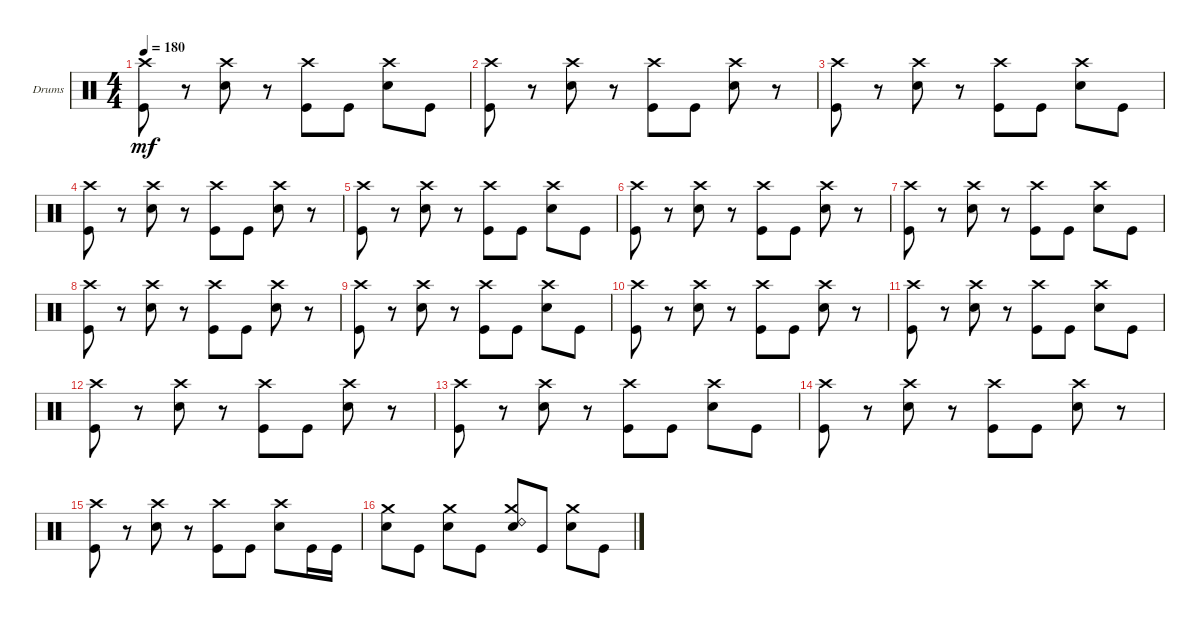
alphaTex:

\defaultSystemsLayout 4
\bracketExtendMode groupsimilarinstruments
\firstSystemTrackNameOrientation horizontal
\otherSystemsTrackNameOrientation horizontal
\track ("Drums" "Drums") {instrument percussion}
\staff {score}
\articulation defaults
\ts (4 4)
\tempo 180
\clef neutral
\ks c
("Kick (hit)" "Crash high (hit)").8{dy mf} r.8 ("Snare (hit) 2" "Crash high (hit)").8 r.8 ("Kick (hit)" "Crash high (hit)").8 "Kick (hit)".8 ("Snare (hit) 2" "Crash high (hit)").8 "Kick (hit)".8 |
("Kick (hit)" "Crash high (hit)").8 r.8 ("Snare (hit) 2" "Crash high (hit)").8 r.8 ("Kick (hit)" "Crash high (hit)").8 "Kick (hit)".8 ("Snare (hit) 2" "Crash high (hit)").8 r.8 |
("Kick (hit)" "Crash high (hit)").8 r.8 ("Snare (hit) 2" "Crash high (hit)").8 r.8 ("Kick (hit)" "Crash high (hit)").8 "Kick (hit)".8 ("Snare (hit) 2" "Crash high (hit)").8 "Kick (hit)".8 |
("Kick (hit)" "Crash high (hit)").8 r.8 ("Snare (hit) 2" "Crash high (hit)").8 r.8 ("Kick (hit)" "Crash high (hit)").8 "Kick (hit)".8 ("Snare (hit) 2" "Crash high (hit)").8 r.8 |
("Kick (hit)" "Crash high (hit)").8 r.8 ("Snare (hit) 2" "Crash high (hit)").8 r.8 ("Kick (hit)" "Crash high (hit)").8 "Kick (hit)".8 ("Snare (hit) 2" "Crash high (hit)").8 "Kick (hit)".8 |
("Kick (hit)" "Crash high (hit)").8 r.8 ("Snare (hit) 2" "Crash high (hit)").8 r.8 ("Kick (hit)" "Crash high (hit)").8 "Kick (hit)".8 ("Snare (hit) 2" "Crash high (hit)").8 r.8 |
("Kick (hit)" "Crash high (hit)").8 r.8 ("Snare (hit) 2" "Crash high (hit)").8 r.8 ("Kick (hit)" "Crash high (hit)").8 "Kick (hit)".8 ("Snare (hit) 2" "Crash high (hit)").8 "Kick (hit)".8 |
("Kick (hit)" "Crash high (hit)").8 r.8 ("Snare (hit) 2" "Crash high (hit)").8 r.8 ("Kick (hit)" "Crash high (hit)").8 "Kick (hit)".8 ("Snare (hit) 2" "Crash high (hit)").8 r.8 |
("Kick (hit)" "Crash high (hit)").8 r.8 ("Snare (hit) 2" "Crash high (hit)").8 r.8 ("Kick (hit)" "Crash high (hit)").8 "Kick (hit)".8 ("Snare (hit) 2" "Crash high (hit)").8 "Kick (hit)".8 |
("Kick (hit)" "Crash high (hit)").8 r.8 ("Snare (hit) 2" "Crash high (hit)").8 r.8 ("Kick (hit)" "Crash high (hit)").8 "Kick (hit)".8 ("Snare (hit) 2" "Crash high (hit)").8 r.8 |
("Kick (hit)" "Crash high (hit)").8 r.8 ("Snare (hit) 2" "Crash high (hit)").8 r.8 ("Kick (hit)" "Crash high (hit)").8 "Kick (hit)".8 ("Snare (hit) 2" "Crash high (hit)").8 "Kick (hit)".8 |
("Kick (hit)" "Crash high (hit)").8 r.8 ("Snare (hit) 2" "Crash high (hit)").8 r.8 ("Kick (hit)" "Crash high (hit)").8 "Kick (hit)".8 ("Snare (hit) 2" "Crash high (hit)").8 r.8 |
("Kick (hit)" "Crash high (hit)").8 r.8 ("Snare (hit) 2" "Crash high (hit)").8 r.8 ("Kick (hit)" "Crash high (hit)").8 "Kick (hit)".8 ("Snare (hit) 2" "Crash high (hit)").8 "Kick (hit)".8 |
("Kick (hit)" "Crash high (hit)").8 r.8 ("Snare (hit) 2" "Crash high (hit)").8 r.8 ("Kick (hit)" "Crash high (hit)").8 "Kick (hit)".8 ("Snare (hit) 2" "Crash high (hit)").8 r.8 |
("Kick (hit)" "Crash high (hit)").8 r.8 ("Snare (hit) 2" "Crash high (hit)").8 r.8 ("Kick (hit)" "Crash high (hit)").8 "Kick (hit)".8 ("Snare (hit) 2" "Crash high (hit)").8 "Kick (hit)".16 "Kick (hit)".16 |
("Snare (hit) 2" "Crash medium (hit)").8 "Kick (hit)".8 ("Snare (hit) 2" "Crash medium (hit)").8 "Kick (hit)".8 ("Snare (hit) 2" "Ride (bell) 2" "Crash medium (hit)").8 "Kick (hit)".8 ("Snare (hit) 2" "Crash medium (hit)").8 "Kick (hit)".8
